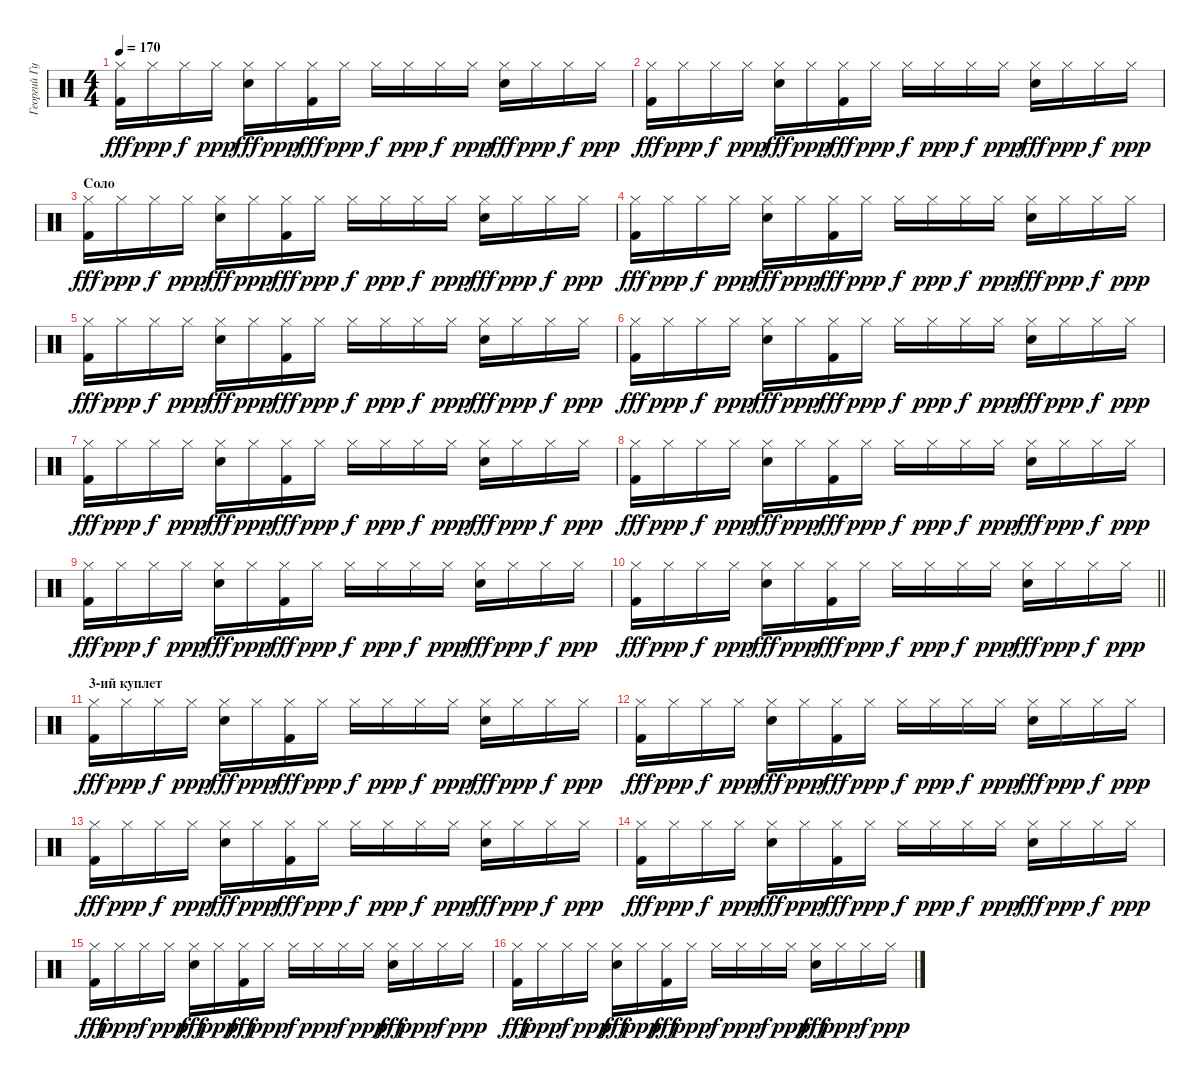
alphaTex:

\track ("Георгий Гурьянов" "Георгий Гу") {instrument percussion}
\staff {score}
\articulation defaults
\ts (4 4)
\tempo 170
\clef neutral
\ks c
("Hi-Hat (closed)" "Kick (hit) 2").16{dy fff} "Hi-Hat (closed)".16{dy ppp} "Hi-Hat (closed)".16{dy f} "Hi-Hat (closed)".16{dy ppp} ("Hi-Hat (closed)" "Electric Snare (hit)").16{dy fff} "Hi-Hat (closed)".16{dy ppp} ("Hi-Hat (closed)" "Kick (hit) 2").16{dy fff} "Hi-Hat (closed)".16{dy ppp} "Hi-Hat (closed)".16{dy f} "Hi-Hat (closed)".16{dy ppp} "Hi-Hat (closed)".16{dy f} "Hi-Hat (closed)".16{dy ppp} ("Hi-Hat (closed)" "Electric Snare (hit)").16{dy fff} "Hi-Hat (closed)".16{dy ppp} "Hi-Hat (closed)".16{dy f} "Hi-Hat (closed)".16{dy ppp} |
("Hi-Hat (closed)" "Kick (hit) 2").16{dy fff} "Hi-Hat (closed)".16{dy ppp} "Hi-Hat (closed)".16{dy f} "Hi-Hat (closed)".16{dy ppp} ("Hi-Hat (closed)" "Electric Snare (hit)").16{dy fff} "Hi-Hat (closed)".16{dy ppp} ("Hi-Hat (closed)" "Kick (hit) 2").16{dy fff} "Hi-Hat (closed)".16{dy ppp} "Hi-Hat (closed)".16{dy f} "Hi-Hat (closed)".16{dy ppp} "Hi-Hat (closed)".16{dy f} "Hi-Hat (closed)".16{dy ppp} ("Hi-Hat (closed)" "Electric Snare (hit)").16{dy fff} "Hi-Hat (closed)".16{dy ppp} "Hi-Hat (closed)".16{dy f} "Hi-Hat (closed)".16{dy ppp} |
\section ("" "Соло")
("Hi-Hat (closed)" "Kick (hit) 2").16{dy fff} "Hi-Hat (closed)".16{dy ppp} "Hi-Hat (closed)".16{dy f} "Hi-Hat (closed)".16{dy ppp} ("Hi-Hat (closed)" "Electric Snare (hit)").16{dy fff} "Hi-Hat (closed)".16{dy ppp} ("Hi-Hat (closed)" "Kick (hit) 2").16{dy fff} "Hi-Hat (closed)".16{dy ppp} "Hi-Hat (closed)".16{dy f} "Hi-Hat (closed)".16{dy ppp} "Hi-Hat (closed)".16{dy f} "Hi-Hat (closed)".16{dy ppp} ("Hi-Hat (closed)" "Electric Snare (hit)").16{dy fff} "Hi-Hat (closed)".16{dy ppp} "Hi-Hat (closed)".16{dy f} "Hi-Hat (closed)".16{dy ppp} |
("Hi-Hat (closed)" "Kick (hit) 2").16{dy fff} "Hi-Hat (closed)".16{dy ppp} "Hi-Hat (closed)".16{dy f} "Hi-Hat (closed)".16{dy ppp} ("Hi-Hat (closed)" "Electric Snare (hit)").16{dy fff} "Hi-Hat (closed)".16{dy ppp} ("Hi-Hat (closed)" "Kick (hit) 2").16{dy fff} "Hi-Hat (closed)".16{dy ppp} "Hi-Hat (closed)".16{dy f} "Hi-Hat (closed)".16{dy ppp} "Hi-Hat (closed)".16{dy f} "Hi-Hat (closed)".16{dy ppp} ("Hi-Hat (closed)" "Electric Snare (hit)").16{dy fff} "Hi-Hat (closed)".16{dy ppp} "Hi-Hat (closed)".16{dy f} "Hi-Hat (closed)".16{dy ppp} |
("Hi-Hat (closed)" "Kick (hit) 2").16{dy fff} "Hi-Hat (closed)".16{dy ppp} "Hi-Hat (closed)".16{dy f} "Hi-Hat (closed)".16{dy ppp} ("Hi-Hat (closed)" "Electric Snare (hit)").16{dy fff} "Hi-Hat (closed)".16{dy ppp} ("Hi-Hat (closed)" "Kick (hit) 2").16{dy fff} "Hi-Hat (closed)".16{dy ppp} "Hi-Hat (closed)".16{dy f} "Hi-Hat (closed)".16{dy ppp} "Hi-Hat (closed)".16{dy f} "Hi-Hat (closed)".16{dy ppp} ("Hi-Hat (closed)" "Electric Snare (hit)").16{dy fff} "Hi-Hat (closed)".16{dy ppp} "Hi-Hat (closed)".16{dy f} "Hi-Hat (closed)".16{dy ppp} |
("Hi-Hat (closed)" "Kick (hit) 2").16{dy fff} "Hi-Hat (closed)".16{dy ppp} "Hi-Hat (closed)".16{dy f} "Hi-Hat (closed)".16{dy ppp} ("Hi-Hat (closed)" "Electric Snare (hit)").16{dy fff} "Hi-Hat (closed)".16{dy ppp} ("Hi-Hat (closed)" "Kick (hit) 2").16{dy fff} "Hi-Hat (closed)".16{dy ppp} "Hi-Hat (closed)".16{dy f} "Hi-Hat (closed)".16{dy ppp} "Hi-Hat (closed)".16{dy f} "Hi-Hat (closed)".16{dy ppp} ("Hi-Hat (closed)" "Electric Snare (hit)").16{dy fff} "Hi-Hat (closed)".16{dy ppp} "Hi-Hat (closed)".16{dy f} "Hi-Hat (closed)".16{dy ppp} |
("Hi-Hat (closed)" "Kick (hit) 2").16{dy fff} "Hi-Hat (closed)".16{dy ppp} "Hi-Hat (closed)".16{dy f} "Hi-Hat (closed)".16{dy ppp} ("Hi-Hat (closed)" "Electric Snare (hit)").16{dy fff} "Hi-Hat (closed)".16{dy ppp} ("Hi-Hat (closed)" "Kick (hit) 2").16{dy fff} "Hi-Hat (closed)".16{dy ppp} "Hi-Hat (closed)".16{dy f} "Hi-Hat (closed)".16{dy ppp} "Hi-Hat (closed)".16{dy f} "Hi-Hat (closed)".16{dy ppp} ("Hi-Hat (closed)" "Electric Snare (hit)").16{dy fff} "Hi-Hat (closed)".16{dy ppp} "Hi-Hat (closed)".16{dy f} "Hi-Hat (closed)".16{dy ppp} |
("Hi-Hat (closed)" "Kick (hit) 2").16{dy fff} "Hi-Hat (closed)".16{dy ppp} "Hi-Hat (closed)".16{dy f} "Hi-Hat (closed)".16{dy ppp} ("Hi-Hat (closed)" "Electric Snare (hit)").16{dy fff} "Hi-Hat (closed)".16{dy ppp} ("Hi-Hat (closed)" "Kick (hit) 2").16{dy fff} "Hi-Hat (closed)".16{dy ppp} "Hi-Hat (closed)".16{dy f} "Hi-Hat (closed)".16{dy ppp} "Hi-Hat (closed)".16{dy f} "Hi-Hat (closed)".16{dy ppp} ("Hi-Hat (closed)" "Electric Snare (hit)").16{dy fff} "Hi-Hat (closed)".16{dy ppp} "Hi-Hat (closed)".16{dy f} "Hi-Hat (closed)".16{dy ppp} |
("Hi-Hat (closed)" "Kick (hit) 2").16{dy fff} "Hi-Hat (closed)".16{dy ppp} "Hi-Hat (closed)".16{dy f} "Hi-Hat (closed)".16{dy ppp} ("Hi-Hat (closed)" "Electric Snare (hit)").16{dy fff} "Hi-Hat (closed)".16{dy ppp} ("Hi-Hat (closed)" "Kick (hit) 2").16{dy fff} "Hi-Hat (closed)".16{dy ppp} "Hi-Hat (closed)".16{dy f} "Hi-Hat (closed)".16{dy ppp} "Hi-Hat (closed)".16{dy f} "Hi-Hat (closed)".16{dy ppp} ("Hi-Hat (closed)" "Electric Snare (hit)").16{dy fff} "Hi-Hat (closed)".16{dy ppp} "Hi-Hat (closed)".16{dy f} "Hi-Hat (closed)".16{dy ppp} |
\barLineRight lightlight
("Hi-Hat (closed)" "Kick (hit) 2").16{dy fff} "Hi-Hat (closed)".16{dy ppp} "Hi-Hat (closed)".16{dy f} "Hi-Hat (closed)".16{dy ppp} ("Hi-Hat (closed)" "Electric Snare (hit)").16{dy fff} "Hi-Hat (closed)".16{dy ppp} ("Hi-Hat (closed)" "Kick (hit) 2").16{dy fff} "Hi-Hat (closed)".16{dy ppp} "Hi-Hat (closed)".16{dy f} "Hi-Hat (closed)".16{dy ppp} "Hi-Hat (closed)".16{dy f} "Hi-Hat (closed)".16{dy ppp} ("Hi-Hat (closed)" "Electric Snare (hit)").16{dy fff} "Hi-Hat (closed)".16{dy ppp} "Hi-Hat (closed)".16{dy f} "Hi-Hat (closed)".16{dy ppp} |
\section ("" "3-ий куплет")
("Hi-Hat (closed)" "Kick (hit) 2").16{dy fff} "Hi-Hat (closed)".16{dy ppp} "Hi-Hat (closed)".16{dy f} "Hi-Hat (closed)".16{dy ppp} ("Hi-Hat (closed)" "Electric Snare (hit)").16{dy fff} "Hi-Hat (closed)".16{dy ppp} ("Hi-Hat (closed)" "Kick (hit) 2").16{dy fff} "Hi-Hat (closed)".16{dy ppp} "Hi-Hat (closed)".16{dy f} "Hi-Hat (closed)".16{dy ppp} "Hi-Hat (closed)".16{dy f} "Hi-Hat (closed)".16{dy ppp} ("Hi-Hat (closed)" "Electric Snare (hit)").16{dy fff} "Hi-Hat (closed)".16{dy ppp} "Hi-Hat (closed)".16{dy f} "Hi-Hat (closed)".16{dy ppp} |
("Hi-Hat (closed)" "Kick (hit) 2").16{dy fff} "Hi-Hat (closed)".16{dy ppp} "Hi-Hat (closed)".16{dy f} "Hi-Hat (closed)".16{dy ppp} ("Hi-Hat (closed)" "Electric Snare (hit)").16{dy fff} "Hi-Hat (closed)".16{dy ppp} ("Hi-Hat (closed)" "Kick (hit) 2").16{dy fff} "Hi-Hat (closed)".16{dy ppp} "Hi-Hat (closed)".16{dy f} "Hi-Hat (closed)".16{dy ppp} "Hi-Hat (closed)".16{dy f} "Hi-Hat (closed)".16{dy ppp} ("Hi-Hat (closed)" "Electric Snare (hit)").16{dy fff} "Hi-Hat (closed)".16{dy ppp} "Hi-Hat (closed)".16{dy f} "Hi-Hat (closed)".16{dy ppp} |
("Hi-Hat (closed)" "Kick (hit) 2").16{dy fff} "Hi-Hat (closed)".16{dy ppp} "Hi-Hat (closed)".16{dy f} "Hi-Hat (closed)".16{dy ppp} ("Hi-Hat (closed)" "Electric Snare (hit)").16{dy fff} "Hi-Hat (closed)".16{dy ppp} ("Hi-Hat (closed)" "Kick (hit) 2").16{dy fff} "Hi-Hat (closed)".16{dy ppp} "Hi-Hat (closed)".16{dy f} "Hi-Hat (closed)".16{dy ppp} "Hi-Hat (closed)".16{dy f} "Hi-Hat (closed)".16{dy ppp} ("Hi-Hat (closed)" "Electric Snare (hit)").16{dy fff} "Hi-Hat (closed)".16{dy ppp} "Hi-Hat (closed)".16{dy f} "Hi-Hat (closed)".16{dy ppp} |
("Hi-Hat (closed)" "Kick (hit) 2").16{dy fff} "Hi-Hat (closed)".16{dy ppp} "Hi-Hat (closed)".16{dy f} "Hi-Hat (closed)".16{dy ppp} ("Hi-Hat (closed)" "Electric Snare (hit)").16{dy fff} "Hi-Hat (closed)".16{dy ppp} ("Hi-Hat (closed)" "Kick (hit) 2").16{dy fff} "Hi-Hat (closed)".16{dy ppp} "Hi-Hat (closed)".16{dy f} "Hi-Hat (closed)".16{dy ppp} "Hi-Hat (closed)".16{dy f} "Hi-Hat (closed)".16{dy ppp} ("Hi-Hat (closed)" "Electric Snare (hit)").16{dy fff} "Hi-Hat (closed)".16{dy ppp} "Hi-Hat (closed)".16{dy f} "Hi-Hat (closed)".16{dy ppp} |
("Hi-Hat (closed)" "Kick (hit) 2").16{dy fff} "Hi-Hat (closed)".16{dy ppp} "Hi-Hat (closed)".16{dy f} "Hi-Hat (closed)".16{dy ppp} ("Hi-Hat (closed)" "Electric Snare (hit)").16{dy fff} "Hi-Hat (closed)".16{dy ppp} ("Hi-Hat (closed)" "Kick (hit) 2").16{dy fff} "Hi-Hat (closed)".16{dy ppp} "Hi-Hat (closed)".16{dy f} "Hi-Hat (closed)".16{dy ppp} "Hi-Hat (closed)".16{dy f} "Hi-Hat (closed)".16{dy ppp} ("Hi-Hat (closed)" "Electric Snare (hit)").16{dy fff} "Hi-Hat (closed)".16{dy ppp} "Hi-Hat (closed)".16{dy f} "Hi-Hat (closed)".16{dy ppp} |
("Hi-Hat (closed)" "Kick (hit) 2").16{dy fff} "Hi-Hat (closed)".16{dy ppp} "Hi-Hat (closed)".16{dy f} "Hi-Hat (closed)".16{dy ppp} ("Hi-Hat (closed)" "Electric Snare (hit)").16{dy fff} "Hi-Hat (closed)".16{dy ppp} ("Hi-Hat (closed)" "Kick (hit) 2").16{dy fff} "Hi-Hat (closed)".16{dy ppp} "Hi-Hat (closed)".16{dy f} "Hi-Hat (closed)".16{dy ppp} "Hi-Hat (closed)".16{dy f} "Hi-Hat (closed)".16{dy ppp} ("Hi-Hat (closed)" "Electric Snare (hit)").16{dy fff} "Hi-Hat (closed)".16{dy ppp} "Hi-Hat (closed)".16{dy f} "Hi-Hat (closed)".16{dy ppp}
